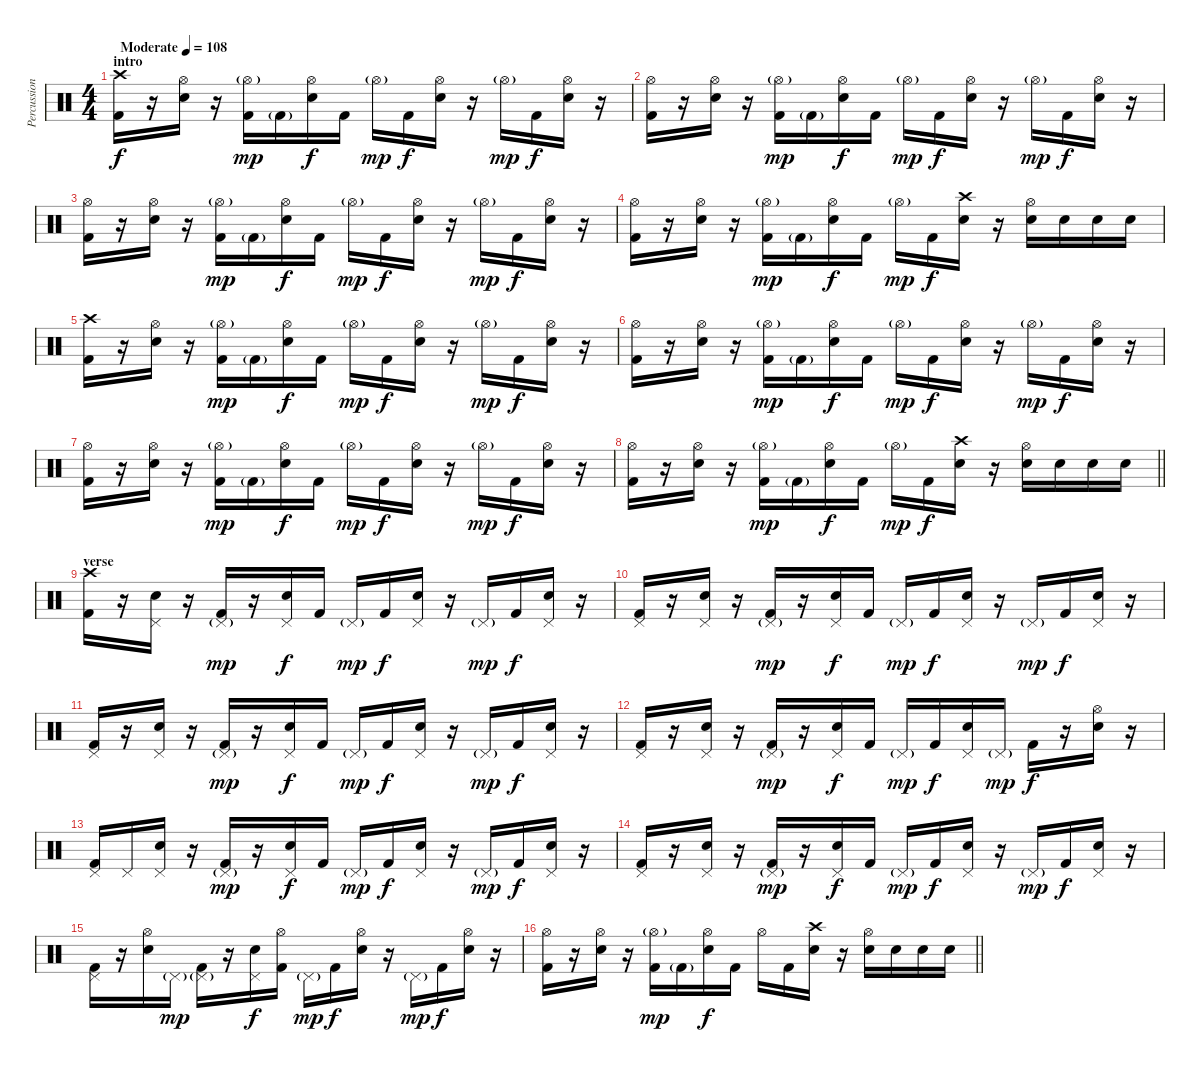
\track ("Percussion" "Percussion") {instrument percussion}
\staff {score}
\articulation defaults
\ts (4 4)
\section ("" "intro")
\tempo (108 "Moderate")
\clef neutral
\ks c
("Crash high (hit)" "Kick (hit) 2").16{dy f} r.16 ("Hi-Hat (open)" "Electric Snare (hit)").16 r.16 ("Hi-Hat (open)"{g} "Kick (hit) 2").16{dy mp} "Kick (hit) 2"{g}.16 ("Hi-Hat (open)" "Electric Snare (hit)").16{dy f} "Kick (hit) 2".16 "Hi-Hat (open)"{g}.16{dy mp} "Kick (hit) 2".16{dy f} ("Hi-Hat (open)" "Electric Snare (hit)").16 r.16 "Hi-Hat (open)"{g}.16{dy mp} "Kick (hit) 2".16{dy f} ("Hi-Hat (open)" "Electric Snare (hit)").16 r.16 |
("Hi-Hat (open)" "Kick (hit) 2").16 r.16 ("Hi-Hat (open)" "Electric Snare (hit)").16 r.16 ("Hi-Hat (open)"{g} "Kick (hit) 2").16{dy mp} "Kick (hit) 2"{g}.16 ("Hi-Hat (open)" "Electric Snare (hit)").16{dy f} "Kick (hit) 2".16 "Hi-Hat (open)"{g}.16{dy mp} "Kick (hit) 2".16{dy f} ("Hi-Hat (open)" "Electric Snare (hit)").16 r.16 "Hi-Hat (open)"{g}.16{dy mp} "Kick (hit) 2".16{dy f} ("Hi-Hat (open)" "Electric Snare (hit)").16 r.16 |
("Hi-Hat (open)" "Kick (hit) 2").16 r.16 ("Hi-Hat (open)" "Electric Snare (hit)").16 r.16 ("Hi-Hat (open)"{g} "Kick (hit) 2").16{dy mp} "Kick (hit) 2"{g}.16 ("Hi-Hat (open)" "Electric Snare (hit)").16{dy f} "Kick (hit) 2".16 "Hi-Hat (open)"{g}.16{dy mp} "Kick (hit) 2".16{dy f} ("Hi-Hat (open)" "Electric Snare (hit)").16 r.16 "Hi-Hat (open)"{g}.16{dy mp} "Kick (hit) 2".16{dy f} ("Hi-Hat (open)" "Electric Snare (hit)").16 r.16 |
("Hi-Hat (open)" "Kick (hit) 2").16 r.16 ("Hi-Hat (open)" "Electric Snare (hit)").16 r.16 ("Hi-Hat (open)"{g} "Kick (hit) 2").16{dy mp} "Kick (hit) 2"{g}.16 ("Hi-Hat (open)" "Electric Snare (hit)").16{dy f} "Kick (hit) 2".16 "Hi-Hat (open)"{g}.16{dy mp} "Kick (hit) 2".16{dy f} ("Crash high (hit)" "Electric Snare (hit)").16 r.16 ("Hi-Hat (open)" "Electric Snare (hit)").16 "Electric Snare (hit)".16 "Electric Snare (hit)".16 "Electric Snare (hit)".16 |
("Crash high (hit)" "Kick (hit) 2").16 r.16 ("Hi-Hat (open)" "Electric Snare (hit)").16 r.16 ("Hi-Hat (open)"{g} "Kick (hit) 2").16{dy mp} "Kick (hit) 2"{g}.16 ("Hi-Hat (open)" "Electric Snare (hit)").16{dy f} "Kick (hit) 2".16 "Hi-Hat (open)"{g}.16{dy mp} "Kick (hit) 2".16{dy f} ("Hi-Hat (open)" "Electric Snare (hit)").16 r.16 "Hi-Hat (open)"{g}.16{dy mp} "Kick (hit) 2".16{dy f} ("Hi-Hat (open)" "Electric Snare (hit)").16 r.16 |
("Hi-Hat (open)" "Kick (hit) 2").16 r.16 ("Hi-Hat (open)" "Electric Snare (hit)").16 r.16 ("Hi-Hat (open)"{g} "Kick (hit) 2").16{dy mp} "Kick (hit) 2"{g}.16 ("Hi-Hat (open)" "Electric Snare (hit)").16{dy f} "Kick (hit) 2".16 "Hi-Hat (open)"{g}.16{dy mp} "Kick (hit) 2".16{dy f} ("Hi-Hat (open)" "Electric Snare (hit)").16 r.16 "Hi-Hat (open)"{g}.16{dy mp} "Kick (hit) 2".16{dy f} ("Hi-Hat (open)" "Electric Snare (hit)").16 r.16 |
("Hi-Hat (open)" "Kick (hit) 2").16 r.16 ("Hi-Hat (open)" "Electric Snare (hit)").16 r.16 ("Hi-Hat (open)"{g} "Kick (hit) 2").16{dy mp} "Kick (hit) 2"{g}.16 ("Hi-Hat (open)" "Electric Snare (hit)").16{dy f} "Kick (hit) 2".16 "Hi-Hat (open)"{g}.16{dy mp} "Kick (hit) 2".16{dy f} ("Hi-Hat (open)" "Electric Snare (hit)").16 r.16 "Hi-Hat (open)"{g}.16{dy mp} "Kick (hit) 2".16{dy f} ("Hi-Hat (open)" "Electric Snare (hit)").16 r.16 |
\barLineRight lightlight
("Hi-Hat (open)" "Kick (hit) 2").16 r.16 ("Hi-Hat (open)" "Electric Snare (hit)").16 r.16 ("Hi-Hat (open)"{g} "Kick (hit) 2").16{dy mp} "Kick (hit) 2"{g}.16 ("Hi-Hat (open)" "Electric Snare (hit)").16{dy f} "Kick (hit) 2".16 "Hi-Hat (open)"{g}.16{dy mp} "Kick (hit) 2".16{dy f} ("Crash high (hit)" "Electric Snare (hit)").16 r.16 ("Hi-Hat (open)" "Electric Snare (hit)").16 "Electric Snare (hit)".16 "Electric Snare (hit)".16 "Electric Snare (hit)".16 |
\section ("" "verse ")
("Crash high (hit)" "Kick (hit) 2").16 r.16 ("Pedal Hi-Hat (hit)" "Electric Snare (hit)").16 r.16 ("Pedal Hi-Hat (hit)"{g} "Kick (hit) 2").16{dy mp} r.16 ("Pedal Hi-Hat (hit)" "Electric Snare (hit)").16{dy f} "Kick (hit) 2".16 "Pedal Hi-Hat (hit)"{g}.16{dy mp} "Kick (hit) 2".16{dy f} ("Pedal Hi-Hat (hit)" "Electric Snare (hit)").16 r.16 "Pedal Hi-Hat (hit)"{g}.16{dy mp} "Kick (hit) 2".16{dy f} ("Pedal Hi-Hat (hit)" "Electric Snare (hit)").16 r.16 |
("Pedal Hi-Hat (hit)" "Kick (hit) 2").16 r.16 ("Pedal Hi-Hat (hit)" "Electric Snare (hit)").16 r.16 ("Pedal Hi-Hat (hit)"{g} "Kick (hit) 2").16{dy mp} r.16 ("Pedal Hi-Hat (hit)" "Electric Snare (hit)").16{dy f} "Kick (hit) 2".16 "Pedal Hi-Hat (hit)"{g}.16{dy mp} "Kick (hit) 2".16{dy f} ("Pedal Hi-Hat (hit)" "Electric Snare (hit)").16 r.16 "Pedal Hi-Hat (hit)"{g}.16{dy mp} "Kick (hit) 2".16{dy f} ("Pedal Hi-Hat (hit)" "Electric Snare (hit)").16 r.16 |
("Pedal Hi-Hat (hit)" "Kick (hit) 2").16 r.16 ("Pedal Hi-Hat (hit)" "Electric Snare (hit)").16 r.16 ("Pedal Hi-Hat (hit)"{g} "Kick (hit) 2").16{dy mp} r.16 ("Pedal Hi-Hat (hit)" "Electric Snare (hit)").16{dy f} "Kick (hit) 2".16 "Pedal Hi-Hat (hit)"{g}.16{dy mp} "Kick (hit) 2".16{dy f} ("Pedal Hi-Hat (hit)" "Electric Snare (hit)").16 r.16 "Pedal Hi-Hat (hit)"{g}.16{dy mp} "Kick (hit) 2".16{dy f} ("Pedal Hi-Hat (hit)" "Electric Snare (hit)").16 r.16 |
("Pedal Hi-Hat (hit)" "Kick (hit) 2").16 r.16 ("Pedal Hi-Hat (hit)" "Electric Snare (hit)").16 r.16 ("Pedal Hi-Hat (hit)"{g} "Kick (hit) 2").16{dy mp} r.16 ("Pedal Hi-Hat (hit)" "Electric Snare (hit)").16{dy f} "Kick (hit) 2".16 "Pedal Hi-Hat (hit)"{g}.16{dy mp} "Kick (hit) 2".16{dy f} ("Pedal Hi-Hat (hit)" "Electric Snare (hit)").16 "Pedal Hi-Hat (hit)"{g}.16{dy mp} "Kick (hit) 2".16{dy f} r.16 ("Hi-Hat (open)" "Electric Snare (hit)").16 r.16 |
("Pedal Hi-Hat (hit)" "Kick (hit) 2").16 "Pedal Hi-Hat (hit)".16 ("Pedal Hi-Hat (hit)" "Electric Snare (hit)").16 r.16 ("Pedal Hi-Hat (hit)"{g} "Kick (hit) 2").16{dy mp} r.16 ("Pedal Hi-Hat (hit)" "Electric Snare (hit)").16{dy f} "Kick (hit) 2".16 "Pedal Hi-Hat (hit)"{g}.16{dy mp} "Kick (hit) 2".16{dy f} ("Pedal Hi-Hat (hit)" "Electric Snare (hit)").16 r.16 "Pedal Hi-Hat (hit)"{g}.16{dy mp} "Kick (hit) 2".16{dy f} ("Pedal Hi-Hat (hit)" "Electric Snare (hit)").16 r.16 |
("Pedal Hi-Hat (hit)" "Kick (hit) 2").16 r.16 ("Pedal Hi-Hat (hit)" "Electric Snare (hit)").16 r.16 ("Pedal Hi-Hat (hit)"{g} "Kick (hit) 2").16{dy mp} r.16 ("Pedal Hi-Hat (hit)" "Electric Snare (hit)").16{dy f} "Kick (hit) 2".16 "Pedal Hi-Hat (hit)"{g}.16{dy mp} "Kick (hit) 2".16{dy f} ("Pedal Hi-Hat (hit)" "Electric Snare (hit)").16 r.16 "Pedal Hi-Hat (hit)"{g}.16{dy mp} "Kick (hit) 2".16{dy f} ("Pedal Hi-Hat (hit)" "Electric Snare (hit)").16 r.16 |
("Pedal Hi-Hat (hit)" "Kick (hit) 2").16 r.16 ("Hi-Hat (open)" "Electric Snare (hit)").16 "Pedal Hi-Hat (hit)"{g}.16{dy mp} ("Pedal Hi-Hat (hit)"{g} "Kick (hit) 2").16 r.16 ("Pedal Hi-Hat (hit)" "Electric Snare (hit)").16{dy f} ("Hi-Hat (open)" "Kick (hit) 2").16 "Pedal Hi-Hat (hit)"{g}.16{dy mp} "Kick (hit) 2".16{dy f} ("Hi-Hat (open)" "Electric Snare (hit)").16 r.16 "Pedal Hi-Hat (hit)"{g}.16{dy mp} "Kick (hit) 2".16{dy f} ("Hi-Hat (open)" "Electric Snare (hit)").16 r.16 |
\barLineRight lightlight
("Hi-Hat (open)" "Kick (hit) 2").16 r.16 ("Hi-Hat (open)" "Electric Snare (hit)").16 r.16 ("Hi-Hat (open)"{g} "Kick (hit) 2").16{dy mp} "Kick (hit) 2"{g}.16 ("Hi-Hat (open)" "Electric Snare (hit)").16{dy f} "Kick (hit) 2".16 "Hi-Hat (open)".16 "Kick (hit) 2".16 ("Crash high (hit)" "Electric Snare (hit)").16 r.16 ("Hi-Hat (open)" "Electric Snare (hit)").16 "Electric Snare (hit)".16 "Electric Snare (hit)".16 "Electric Snare (hit)".16
